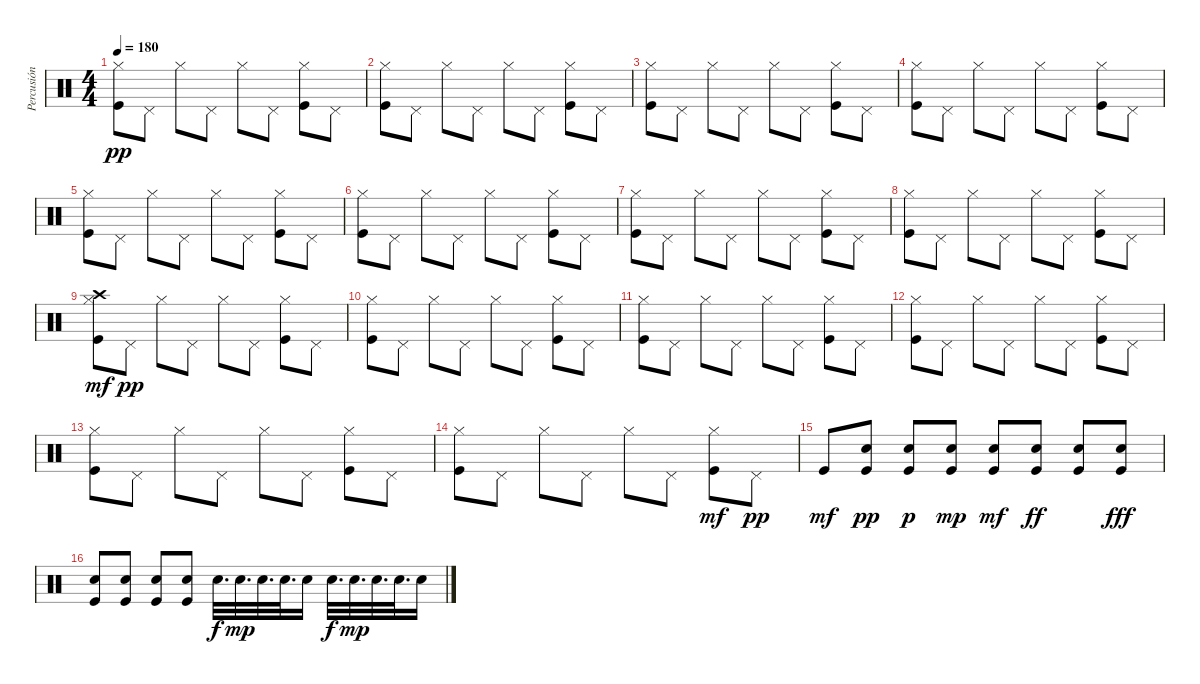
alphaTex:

\track ("Percusión" "Percusión") {instrument percussion}
\staff {score}
\articulation defaults
\ts (4 4)
\tempo 180
\clef neutral
\ks c
("Hi-Hat (closed)" "Kick (hit)").8{dy pp} "Pedal Hi-Hat (hit)".8 "Hi-Hat (closed)".8 "Pedal Hi-Hat (hit)".8 "Hi-Hat (closed)".8 "Pedal Hi-Hat (hit)".8 ("Hi-Hat (closed)" "Kick (hit)").8 "Pedal Hi-Hat (hit)".8 |
("Hi-Hat (closed)" "Kick (hit)").8 "Pedal Hi-Hat (hit)".8 "Hi-Hat (closed)".8 "Pedal Hi-Hat (hit)".8 "Hi-Hat (closed)".8 "Pedal Hi-Hat (hit)".8 ("Hi-Hat (closed)" "Kick (hit)").8 "Pedal Hi-Hat (hit)".8 |
("Hi-Hat (closed)" "Kick (hit)").8 "Pedal Hi-Hat (hit)".8 "Hi-Hat (closed)".8 "Pedal Hi-Hat (hit)".8 "Hi-Hat (closed)".8 "Pedal Hi-Hat (hit)".8 ("Hi-Hat (closed)" "Kick (hit)").8 "Pedal Hi-Hat (hit)".8 |
("Hi-Hat (closed)" "Kick (hit)").8 "Pedal Hi-Hat (hit)".8 "Hi-Hat (closed)".8 "Pedal Hi-Hat (hit)".8 "Hi-Hat (closed)".8 "Pedal Hi-Hat (hit)".8 ("Hi-Hat (closed)" "Kick (hit)").8 "Pedal Hi-Hat (hit)".8 |
("Hi-Hat (closed)" "Kick (hit)").8 "Pedal Hi-Hat (hit)".8 "Hi-Hat (closed)".8 "Pedal Hi-Hat (hit)".8 "Hi-Hat (closed)".8 "Pedal Hi-Hat (hit)".8 ("Hi-Hat (closed)" "Kick (hit)").8 "Pedal Hi-Hat (hit)".8 |
("Hi-Hat (closed)" "Kick (hit)").8 "Pedal Hi-Hat (hit)".8 "Hi-Hat (closed)".8 "Pedal Hi-Hat (hit)".8 "Hi-Hat (closed)".8 "Pedal Hi-Hat (hit)".8 ("Hi-Hat (closed)" "Kick (hit)").8 "Pedal Hi-Hat (hit)".8 |
("Hi-Hat (closed)" "Kick (hit)").8 "Pedal Hi-Hat (hit)".8 "Hi-Hat (closed)".8 "Pedal Hi-Hat (hit)".8 "Hi-Hat (closed)".8 "Pedal Hi-Hat (hit)".8 ("Hi-Hat (closed)" "Kick (hit)").8 "Pedal Hi-Hat (hit)".8 |
("Hi-Hat (closed)" "Kick (hit)").8 "Pedal Hi-Hat (hit)".8 "Hi-Hat (closed)".8 "Pedal Hi-Hat (hit)".8 "Hi-Hat (closed)".8 "Pedal Hi-Hat (hit)".8 ("Hi-Hat (closed)" "Kick (hit)").8 "Pedal Hi-Hat (hit)".8 |
("Hi-Hat (closed)" "Kick (hit)" "Crash high (hit)").8{dy mf} "Pedal Hi-Hat (hit)".8{dy pp} "Hi-Hat (closed)".8 "Pedal Hi-Hat (hit)".8 "Hi-Hat (closed)".8 "Pedal Hi-Hat (hit)".8 ("Hi-Hat (closed)" "Kick (hit)").8 "Pedal Hi-Hat (hit)".8 |
("Hi-Hat (closed)" "Kick (hit)").8 "Pedal Hi-Hat (hit)".8 "Hi-Hat (closed)".8 "Pedal Hi-Hat (hit)".8 "Hi-Hat (closed)".8 "Pedal Hi-Hat (hit)".8 ("Hi-Hat (closed)" "Kick (hit)").8 "Pedal Hi-Hat (hit)".8 |
("Hi-Hat (closed)" "Kick (hit)").8 "Pedal Hi-Hat (hit)".8 "Hi-Hat (closed)".8 "Pedal Hi-Hat (hit)".8 "Hi-Hat (closed)".8 "Pedal Hi-Hat (hit)".8 ("Hi-Hat (closed)" "Kick (hit)").8 "Pedal Hi-Hat (hit)".8 |
("Hi-Hat (closed)" "Kick (hit)").8 "Pedal Hi-Hat (hit)".8 "Hi-Hat (closed)".8 "Pedal Hi-Hat (hit)".8 "Hi-Hat (closed)".8 "Pedal Hi-Hat (hit)".8 ("Hi-Hat (closed)" "Kick (hit)").8 "Pedal Hi-Hat (hit)".8 |
("Hi-Hat (closed)" "Kick (hit)").8 "Pedal Hi-Hat (hit)".8 "Hi-Hat (closed)".8 "Pedal Hi-Hat (hit)".8 "Hi-Hat (closed)".8 "Pedal Hi-Hat (hit)".8 ("Hi-Hat (closed)" "Kick (hit)").8 "Pedal Hi-Hat (hit)".8 |
("Hi-Hat (closed)" "Kick (hit)").8 "Pedal Hi-Hat (hit)".8 "Hi-Hat (closed)".8 "Pedal Hi-Hat (hit)".8 "Hi-Hat (closed)".8 "Pedal Hi-Hat (hit)".8 ("Hi-Hat (closed)" "Kick (hit)").8{dy mf} "Pedal Hi-Hat (hit)".8{dy pp} |
"Kick (hit)".8{dy mf} ("Kick (hit)" "Snare (hit) 2").8{dy pp} ("Kick (hit)" "Snare (hit) 2").8{dy p} ("Kick (hit)" "Snare (hit) 2").8{dy mp} ("Kick (hit)" "Snare (hit) 2").8{dy mf} ("Kick (hit)" "Snare (hit) 2").8{dy ff} ("Kick (hit)" "Snare (hit) 2").8 ("Kick (hit)" "Snare (hit) 2").8{dy fff} |
("Kick (hit)" "Snare (hit) 2").8 ("Kick (hit)" "Snare (hit) 2").8 ("Kick (hit)" "Snare (hit) 2").8 ("Kick (hit)" "Snare (hit) 2").8 "Snare (hit) 2".32{d dy f} "Snare (hit) 2".32{d dy mp} "Snare (hit) 2".32{d} "Snare (hit) 2".32{d} "Snare (hit) 2".16 "Snare (hit) 2".32{d dy f} "Snare (hit) 2".32{d dy mp} "Snare (hit) 2".32{d} "Snare (hit) 2".32{d} "Snare (hit) 2".16
